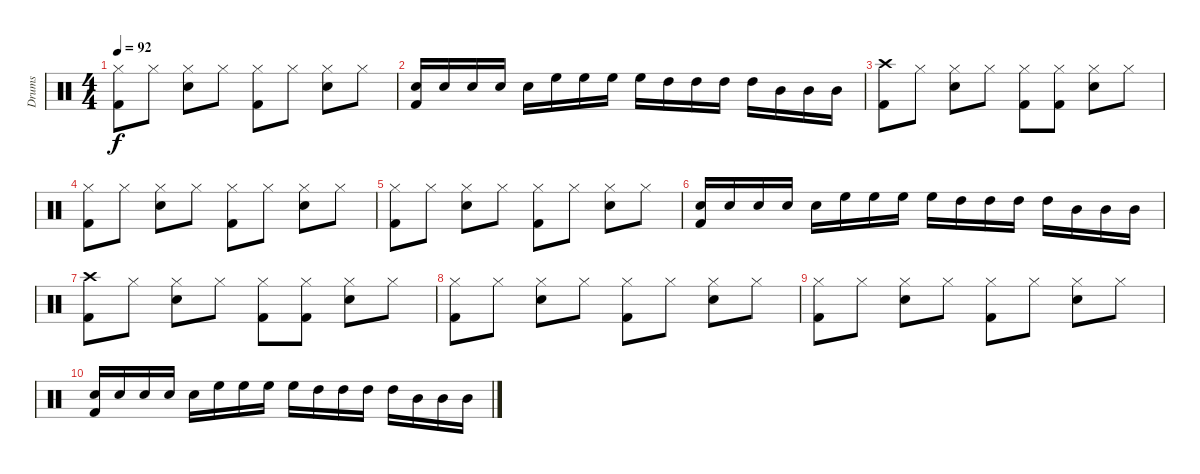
\track ("Drums" "Drums") {instrument percussion}
\staff {score}
\articulation defaults
\ts (4 4)
\tempo 92
\clef neutral
\ks c
("Hi-Hat (closed)" "Kick (hit) 2").8{dy f} "Hi-Hat (closed)".8 ("Hi-Hat (closed)" "Snare (hit) 2").8 "Hi-Hat (closed)".8 ("Hi-Hat (closed)" "Kick (hit) 2").8 "Hi-Hat (closed)".8 ("Hi-Hat (closed)" "Snare (hit) 2").8 "Hi-Hat (closed)".8 |
("Snare (hit) 2" "Kick (hit) 2").16 "Snare (hit) 2".16 "Snare (hit) 2".16 "Snare (hit) 2".16 "Snare (hit) 2".16 "High Floor Tom (hit)".16 "High Floor Tom (hit)".16 "High Floor Tom (hit)".16 "High Floor Tom (hit)".16 "High Tom (hit)".16 "High Tom (hit)".16 "High Tom (hit)".16 "High Tom (hit)".16 "Mid Tom (hit)".16 "Mid Tom (hit)".16 "Mid Tom (hit)".16 |
("Crash high (hit)" "Kick (hit) 2").8 "Hi-Hat (closed)".8 ("Hi-Hat (closed)" "Snare (hit) 2").8 "Hi-Hat (closed)".8 ("Hi-Hat (closed)" "Kick (hit) 2").8 ("Hi-Hat (closed)" "Kick (hit) 2").8 ("Hi-Hat (closed)" "Snare (hit) 2").8 "Hi-Hat (closed)".8 |
("Hi-Hat (closed)" "Kick (hit) 2").8 "Hi-Hat (closed)".8 ("Hi-Hat (closed)" "Snare (hit) 2").8 "Hi-Hat (closed)".8 ("Hi-Hat (closed)" "Kick (hit) 2").8 "Hi-Hat (closed)".8 ("Hi-Hat (closed)" "Snare (hit) 2").8 "Hi-Hat (closed)".8 |
("Hi-Hat (closed)" "Kick (hit) 2").8 "Hi-Hat (closed)".8 ("Hi-Hat (closed)" "Snare (hit) 2").8 "Hi-Hat (closed)".8 ("Hi-Hat (closed)" "Kick (hit) 2").8 "Hi-Hat (closed)".8 ("Hi-Hat (closed)" "Snare (hit) 2").8 "Hi-Hat (closed)".8 |
("Snare (hit) 2" "Kick (hit) 2").16 "Snare (hit) 2".16 "Snare (hit) 2".16 "Snare (hit) 2".16 "Snare (hit) 2".16 "High Floor Tom (hit)".16 "High Floor Tom (hit)".16 "High Floor Tom (hit)".16 "High Floor Tom (hit)".16 "High Tom (hit)".16 "High Tom (hit)".16 "High Tom (hit)".16 "High Tom (hit)".16 "Mid Tom (hit)".16 "Mid Tom (hit)".16 "Mid Tom (hit)".16 |
("Crash high (hit)" "Kick (hit) 2").8 "Hi-Hat (closed)".8 ("Hi-Hat (closed)" "Snare (hit) 2").8 "Hi-Hat (closed)".8 ("Hi-Hat (closed)" "Kick (hit) 2").8 ("Hi-Hat (closed)" "Kick (hit) 2").8 ("Hi-Hat (closed)" "Snare (hit) 2").8 "Hi-Hat (closed)".8 |
("Hi-Hat (closed)" "Kick (hit) 2").8 "Hi-Hat (closed)".8 ("Hi-Hat (closed)" "Snare (hit) 2").8 "Hi-Hat (closed)".8 ("Hi-Hat (closed)" "Kick (hit) 2").8 "Hi-Hat (closed)".8 ("Hi-Hat (closed)" "Snare (hit) 2").8 "Hi-Hat (closed)".8 |
("Hi-Hat (closed)" "Kick (hit) 2").8 "Hi-Hat (closed)".8 ("Hi-Hat (closed)" "Snare (hit) 2").8 "Hi-Hat (closed)".8 ("Hi-Hat (closed)" "Kick (hit) 2").8 "Hi-Hat (closed)".8 ("Hi-Hat (closed)" "Snare (hit) 2").8 "Hi-Hat (closed)".8 |
("Snare (hit) 2" "Kick (hit) 2").16 "Snare (hit) 2".16 "Snare (hit) 2".16 "Snare (hit) 2".16 "Snare (hit) 2".16 "High Floor Tom (hit)".16 "High Floor Tom (hit)".16 "High Floor Tom (hit)".16 "High Floor Tom (hit)".16 "High Tom (hit)".16 "High Tom (hit)".16 "High Tom (hit)".16 "High Tom (hit)".16 "Mid Tom (hit)".16 "Mid Tom (hit)".16 "Mid Tom (hit)".16
